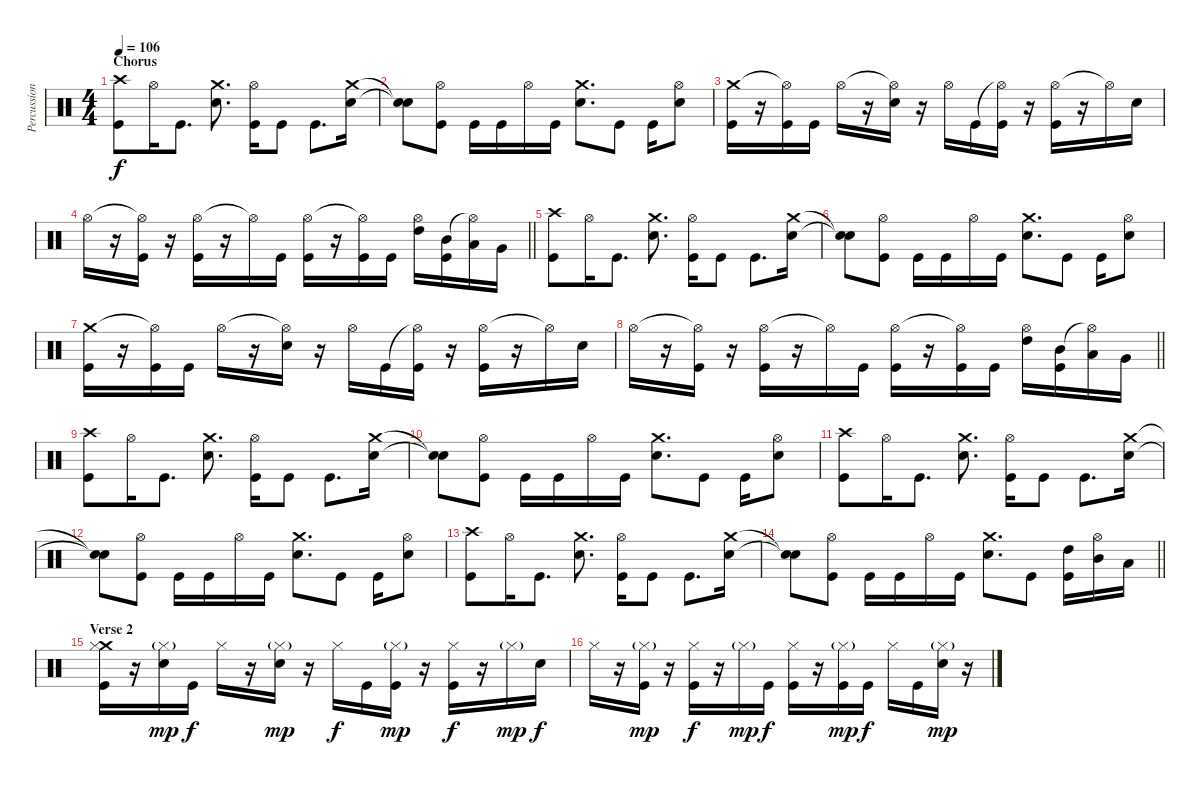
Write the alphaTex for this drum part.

\track ("Percussion" "Percussion") {instrument percussion}
\staff {score}
\articulation defaults
\ts (4 4)
\section ("" "Chorus")
\tempo 106
\clef neutral
\ks c
("Crash high (hit)" "Kick (hit)").8{dy f} "Hi-Hat (open)".16 "Kick (hit)".8{d} ("Crash medium (hit)" "Snare (hit) 2").8{d} ("Hi-Hat (open)" "Kick (hit)").16 "Kick (hit)".8 "Kick (hit)".8{d} ("Crash medium (hit)" "Snare (hit) 2").16 |
("Snare (hit)"{t} "Snare (hit)"{t}).8 ("Hi-Hat (open)" "Kick (hit)").8 "Kick (hit)".16 "Kick (hit)".16 "Hi-Hat (open)".16 "Kick (hit)".16 ("Crash medium (hit)" "Snare (hit) 2").8{d} "Kick (hit)".8 "Kick (hit)".16 ("Hi-Hat (open)" "Snare (hit) 2").8 |
("Crash medium (hit)" "Kick (hit)").16 r.16 ("Hi-Hat (open)"{t} "Kick (hit)").16 "Kick (hit)".16 "Hi-Hat (open)".16 r.16 ("Hi-Hat (open)"{t} "Snare (hit) 2").16 r.16 "Hi-Hat (open)".16 "Kick (hit)".16 ("Hi-Hat (open)"{t} "Kick (hit)").16 r.16 ("Hi-Hat (open)" "Kick (hit)").16 r.16 "Hi-Hat (open)"{t}.16 "Snare (hit) 2".16 |
\barLineRight lightlight "Hi-Hat (open)".16
r.16 ("Hi-Hat (open)"{t} "Kick (hit)").16 r.16 ("Hi-Hat (open)" "Kick (hit)").16 r.16 "Hi-Hat (open)"{t}.16 "Kick (hit)".16 ("Hi-Hat (open)" "Kick (hit)").16 r.16 ("Hi-Hat (open)"{t} "Kick (hit)").16 "Kick (hit)".16 ("Hi-Hat (open)" "High Tom (hit)").16 ("Mid Tom (hit)" "Kick (hit)").16 ("Hi-Hat (open)"{t} "Low Tom (hit)").16 "Very Low Tom (hit)".16 |
("Crash high (hit)" "Kick (hit)").8 "Hi-Hat (open)".16 "Kick (hit)".8{d} ("Crash medium (hit)" "Snare (hit) 2").8{d} ("Hi-Hat (open)" "Kick (hit)").16 "Kick (hit)".8 "Kick (hit)".8{d} ("Crash medium (hit)" "Snare (hit) 2").16 |
("Snare (hit)"{t} "Snare (hit)"{t}).8 ("Hi-Hat (open)" "Kick (hit)").8 "Kick (hit)".16 "Kick (hit)".16 "Hi-Hat (open)".16 "Kick (hit)".16 ("Crash medium (hit)" "Snare (hit) 2").8{d} "Kick (hit)".8 "Kick (hit)".16 ("Hi-Hat (open)" "Snare (hit) 2").8 |
("Crash medium (hit)" "Kick (hit)").16 r.16 ("Hi-Hat (open)"{t} "Kick (hit)").16 "Kick (hit)".16 "Hi-Hat (open)".16 r.16 ("Hi-Hat (open)"{t} "Snare (hit) 2").16 r.16 "Hi-Hat (open)".16 "Kick (hit)".16 ("Hi-Hat (open)"{t} "Kick (hit)").16 r.16 ("Hi-Hat (open)" "Kick (hit)").16 r.16 "Hi-Hat (open)"{t}.16 "Snare (hit) 2".16 |
\barLineRight lightlight "Hi-Hat (open)".16
r.16 ("Hi-Hat (open)"{t} "Kick (hit)").16 r.16 ("Hi-Hat (open)" "Kick (hit)").16 r.16 "Hi-Hat (open)"{t}.16 "Kick (hit)".16 ("Hi-Hat (open)" "Kick (hit)").16 r.16 ("Hi-Hat (open)"{t} "Kick (hit)").16 "Kick (hit)".16 ("Hi-Hat (open)" "High Tom (hit)").16 ("Mid Tom (hit)" "Kick (hit)").16 ("Hi-Hat (open)"{t} "Low Tom (hit)").16 "Very Low Tom (hit)".16 |
("Crash high (hit)" "Kick (hit)").8 "Hi-Hat (open)".16 "Kick (hit)".8{d} ("Crash medium (hit)" "Snare (hit) 2").8{d} ("Hi-Hat (open)" "Kick (hit)").16 "Kick (hit)".8 "Kick (hit)".8{d} ("Crash medium (hit)" "Snare (hit) 2").16 |
("Snare (hit)"{t} "Snare (hit)"{t}).8 ("Hi-Hat (open)" "Kick (hit)").8 "Kick (hit)".16 "Kick (hit)".16 "Hi-Hat (open)".16 "Kick (hit)".16 ("Crash medium (hit)" "Snare (hit) 2").8{d} "Kick (hit)".8 "Kick (hit)".16 ("Hi-Hat (open)" "Snare (hit) 2").8 |
("Crash high (hit)" "Kick (hit)").8 "Hi-Hat (open)".16 "Kick (hit)".8{d} ("Crash medium (hit)" "Snare (hit) 2").8{d} ("Hi-Hat (open)" "Kick (hit)").16 "Kick (hit)".8 "Kick (hit)".8{d} ("Crash medium (hit)" "Snare (hit) 2").16 |
("Snare (hit)"{t} "Snare (hit)"{t}).8 ("Hi-Hat (open)" "Kick (hit)").8 "Kick (hit)".16 "Kick (hit)".16 "Hi-Hat (open)".16 "Kick (hit)".16 ("Crash medium (hit)" "Snare (hit) 2").8{d} "Kick (hit)".8 "Kick (hit)".16 ("Hi-Hat (open)" "Snare (hit) 2").8 |
("Crash high (hit)" "Kick (hit)").8 "Hi-Hat (open)".16 "Kick (hit)".8{d} ("Crash medium (hit)" "Snare (hit) 2").8{d} ("Hi-Hat (open)" "Kick (hit)").16 "Kick (hit)".8 "Kick (hit)".8{d} ("Crash medium (hit)" "Snare (hit) 2").16 |
\barLineRight lightlight
("Snare (hit)"{t} "Snare (hit)"{t}).8 ("Hi-Hat (open)" "Kick (hit)").8 "Kick (hit)".16 "Kick (hit)".16 "Hi-Hat (open)".16 "Kick (hit)".16 ("Crash medium (hit)" "Snare (hit) 2").8{d} "Kick (hit)".8 ("High Tom (hit)" "Kick (hit)").16 ("Hi-Hat (open)" "Mid Tom (hit)").16 "Low Tom (hit)".16 |
\section ("" "Verse 2")
("Crash medium (hit)" "Hi-Hat (closed)" "Kick (hit)").16 r.16 ("Hi-Hat (closed)"{g} "Snare (hit) 2").16{dy mp} "Kick (hit)".16{dy f} "Hi-Hat (closed)".16 r.16 ("Hi-Hat (closed)"{g} "Snare (hit) 2").16{dy mp} r.16 "Hi-Hat (closed)".16{dy f} "Kick (hit)".16 ("Hi-Hat (closed)"{g} "Kick (hit)").16{dy mp} r.16 ("Hi-Hat (closed)" "Kick (hit)").16{dy f} r.16 "Hi-Hat (closed)"{g}.16{dy mp} "Snare (hit) 2".16{dy f} |
"Hi-Hat (closed)".16 r.16 ("Hi-Hat (closed)"{g} "Kick (hit)").16{dy mp} r.16 ("Hi-Hat (closed)" "Kick (hit)").16{dy f} r.16 "Hi-Hat (closed)"{g}.16{dy mp} "Kick (hit)".16{dy f} ("Hi-Hat (closed)" "Kick (hit)").16 r.16 ("Hi-Hat (closed)"{g} "Kick (hit)").16{dy mp} "Kick (hit)".16{dy f} "Hi-Hat (closed)".16 "Kick (hit)".16 ("Hi-Hat (closed)"{g} "Snare (hit) 2").16{dy mp} r.16
